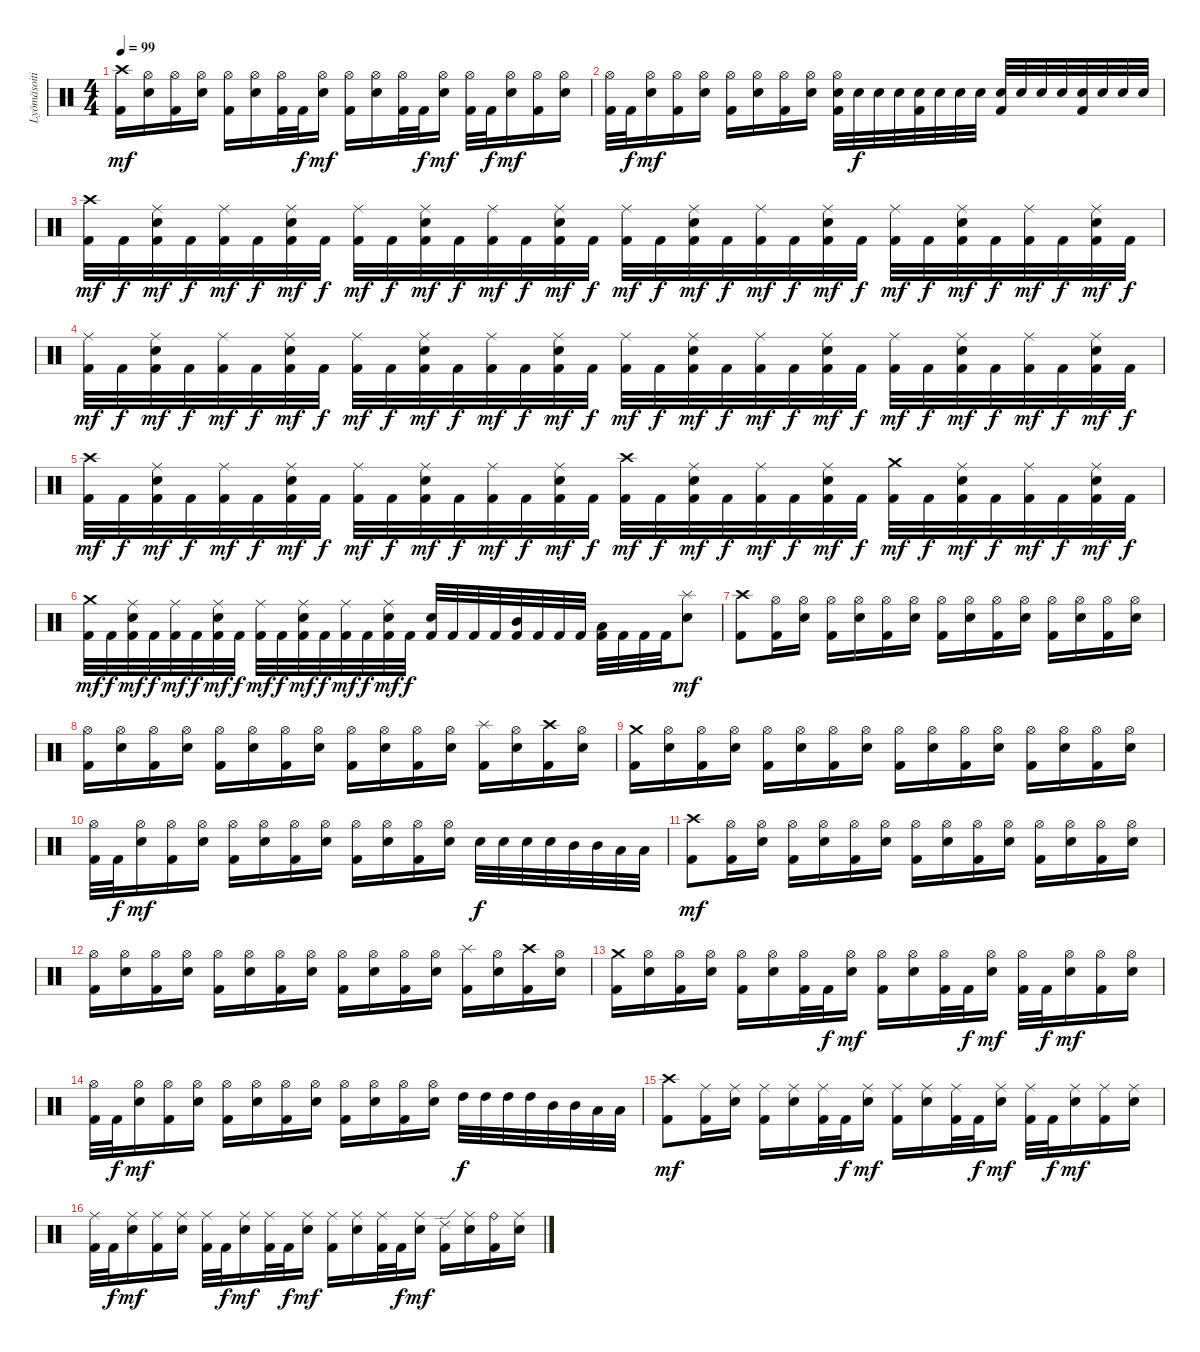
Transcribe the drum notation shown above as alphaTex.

\track ("Lyömäsoitin" "Lyömäsoiti") {instrument percussion}
\staff {score}
\articulation defaults
\ts (4 4)
\tempo 99
\clef neutral
\ks c
("Crash high (hit)" "Kick (hit) 2").16{dy mf} ("Electric Snare (hit)" "Hi-Hat (open)").16 ("Hi-Hat (open)" "Kick (hit) 2").16 ("Electric Snare (hit)" "Hi-Hat (open)").16 ("Hi-Hat (open)" "Kick (hit) 2").16 ("Electric Snare (hit)" "Hi-Hat (open)").16 ("Hi-Hat (open)" "Kick (hit) 2").32 "Kick (hit) 2".32{dy f} ("Electric Snare (hit)" "Hi-Hat (open)").16{dy mf} ("Hi-Hat (open)" "Kick (hit) 2").16 ("Electric Snare (hit)" "Hi-Hat (open)").16 ("Hi-Hat (open)" "Kick (hit) 2").32 "Kick (hit) 2".32{dy f} ("Electric Snare (hit)" "Hi-Hat (open)").16{dy mf} ("Hi-Hat (open)" "Kick (hit) 2").32 "Kick (hit) 2".32{dy f} ("Electric Snare (hit)" "Hi-Hat (open)").16{dy mf} ("Hi-Hat (open)" "Kick (hit) 2").16 ("Electric Snare (hit)" "Hi-Hat (open)").16 |
("Hi-Hat (open)" "Kick (hit) 2").32 "Kick (hit) 2".32{dy f} ("Electric Snare (hit)" "Hi-Hat (open)").16{dy mf} ("Hi-Hat (open)" "Kick (hit) 2").16 ("Electric Snare (hit)" "Hi-Hat (open)").16 ("Hi-Hat (open)" "Kick (hit) 2").16 ("Electric Snare (hit)" "Hi-Hat (open)").16 ("Hi-Hat (open)" "Kick (hit) 2").16 ("Electric Snare (hit)" "Hi-Hat (open)").16 ("Electric Snare (hit)" "Hi-Hat (open)" "Kick (hit) 2").32 "Electric Snare (hit)".32{dy f} "Electric Snare (hit)".32 "Electric Snare (hit)".32 ("Electric Snare (hit)" "Kick (hit) 2").32 "Electric Snare (hit)".32 "Electric Snare (hit)".32 "Electric Snare (hit)".32 ("Electric Snare (hit)" "Kick (hit) 2").32 "Electric Snare (hit)".32 "Electric Snare (hit)".32 "Electric Snare (hit)".32 ("Electric Snare (hit)" "Kick (hit) 2").32 "Electric Snare (hit)".32 "Electric Snare (hit)".32 "Electric Snare (hit)".32 |
("Crash high (hit)" "Kick (hit) 2").32{dy mf} "Kick (hit) 2".32{dy f} ("Electric Snare (hit)" "Ride (middle)" "Kick (hit) 2").32{dy mf} "Kick (hit) 2".32{dy f} ("Ride (middle)" "Kick (hit) 2").32{dy mf} "Kick (hit) 2".32{dy f} ("Electric Snare (hit)" "Ride (middle)" "Kick (hit) 2").32{dy mf} "Kick (hit) 2".32{dy f} ("Ride (middle)" "Kick (hit) 2").32{dy mf} "Kick (hit) 2".32{dy f} ("Electric Snare (hit)" "Ride (middle)" "Kick (hit) 2").32{dy mf} "Kick (hit) 2".32{dy f} ("Ride (middle)" "Kick (hit) 2").32{dy mf} "Kick (hit) 2".32{dy f} ("Electric Snare (hit)" "Ride (middle)" "Kick (hit) 2").32{dy mf} "Kick (hit) 2".32{dy f} ("Ride (middle)" "Kick (hit) 2").32{dy mf} "Kick (hit) 2".32{dy f} ("Electric Snare (hit)" "Ride (middle)" "Kick (hit) 2").32{dy mf} "Kick (hit) 2".32{dy f} ("Ride (middle)" "Kick (hit) 2").32{dy mf} "Kick (hit) 2".32{dy f} ("Electric Snare (hit)" "Ride (middle)" "Kick (hit) 2").32{dy mf} "Kick (hit) 2".32{dy f} ("Ride (middle)" "Kick (hit) 2").32{dy mf} "Kick (hit) 2".32{dy f} ("Electric Snare (hit)" "Ride (middle)" "Kick (hit) 2").32{dy mf} "Kick (hit) 2".32{dy f} ("Ride (middle)" "Kick (hit) 2").32{dy mf} "Kick (hit) 2".32{dy f} ("Electric Snare (hit)" "Ride (middle)" "Kick (hit) 2").32{dy mf} "Kick (hit) 2".32{dy f} |
("Ride (middle)" "Kick (hit) 2").32{dy mf} "Kick (hit) 2".32{dy f} ("Electric Snare (hit)" "Ride (middle)" "Kick (hit) 2").32{dy mf} "Kick (hit) 2".32{dy f} ("Ride (middle)" "Kick (hit) 2").32{dy mf} "Kick (hit) 2".32{dy f} ("Electric Snare (hit)" "Ride (middle)" "Kick (hit) 2").32{dy mf} "Kick (hit) 2".32{dy f} ("Ride (middle)" "Kick (hit) 2").32{dy mf} "Kick (hit) 2".32{dy f} ("Electric Snare (hit)" "Ride (middle)" "Kick (hit) 2").32{dy mf} "Kick (hit) 2".32{dy f} ("Ride (middle)" "Kick (hit) 2").32{dy mf} "Kick (hit) 2".32{dy f} ("Electric Snare (hit)" "Ride (middle)" "Kick (hit) 2").32{dy mf} "Kick (hit) 2".32{dy f} ("Ride (middle)" "Kick (hit) 2").32{dy mf} "Kick (hit) 2".32{dy f} ("Electric Snare (hit)" "Ride (middle)" "Kick (hit) 2").32{dy mf} "Kick (hit) 2".32{dy f} ("Ride (middle)" "Kick (hit) 2").32{dy mf} "Kick (hit) 2".32{dy f} ("Electric Snare (hit)" "Ride (middle)" "Kick (hit) 2").32{dy mf} "Kick (hit) 2".32{dy f} ("Ride (middle)" "Kick (hit) 2").32{dy mf} "Kick (hit) 2".32{dy f} ("Electric Snare (hit)" "Ride (middle)" "Kick (hit) 2").32{dy mf} "Kick (hit) 2".32{dy f} ("Ride (middle)" "Kick (hit) 2").32{dy mf} "Kick (hit) 2".32{dy f} ("Electric Snare (hit)" "Ride (middle)" "Kick (hit) 2").32{dy mf} "Kick (hit) 2".32{dy f} |
("Crash high (hit)" "Kick (hit) 2").32{dy mf} "Kick (hit) 2".32{dy f} ("Electric Snare (hit)" "Ride (middle)" "Kick (hit) 2").32{dy mf} "Kick (hit) 2".32{dy f} ("Ride (middle)" "Kick (hit) 2").32{dy mf} "Kick (hit) 2".32{dy f} ("Electric Snare (hit)" "Ride (middle)" "Kick (hit) 2").32{dy mf} "Kick (hit) 2".32{dy f} ("Ride (middle)" "Kick (hit) 2").32{dy mf} "Kick (hit) 2".32{dy f} ("Electric Snare (hit)" "Ride (middle)" "Kick (hit) 2").32{dy mf} "Kick (hit) 2".32{dy f} ("Ride (middle)" "Kick (hit) 2").32{dy mf} "Kick (hit) 2".32{dy f} ("Electric Snare (hit)" "Ride (middle)" "Kick (hit) 2").32{dy mf} "Kick (hit) 2".32{dy f} ("Crash high (hit)" "Kick (hit) 2").32{dy mf} "Kick (hit) 2".32{dy f} ("Electric Snare (hit)" "Ride (middle)" "Kick (hit) 2").32{dy mf} "Kick (hit) 2".32{dy f} ("Ride (middle)" "Kick (hit) 2").32{dy mf} "Kick (hit) 2".32{dy f} ("Electric Snare (hit)" "Ride (middle)" "Kick (hit) 2").32{dy mf} "Kick (hit) 2".32{dy f} ("Crash medium (hit)" "Kick (hit) 2").32{dy mf} "Kick (hit) 2".32{dy f} ("Electric Snare (hit)" "Ride (middle)" "Kick (hit) 2").32{dy mf} "Kick (hit) 2".32{dy f} ("Ride (middle)" "Kick (hit) 2").32{dy mf} "Kick (hit) 2".32{dy f} ("Electric Snare (hit)" "Ride (middle)" "Kick (hit) 2").32{dy mf} "Kick (hit) 2".32{dy f} |
("Crash medium (hit)" "Kick (hit) 2").32{dy mf} "Kick (hit) 2".32{dy f} ("Electric Snare (hit)" "Ride (middle)" "Kick (hit) 2").32{dy mf} "Kick (hit) 2".32{dy f} ("Ride (middle)" "Kick (hit) 2").32{dy mf} "Kick (hit) 2".32{dy f} ("Electric Snare (hit)" "Ride (middle)" "Kick (hit) 2").32{dy mf} "Kick (hit) 2".32{dy f} ("Ride (middle)" "Kick (hit) 2").32{dy mf} "Kick (hit) 2".32{dy f} ("Electric Snare (hit)" "Ride (middle)" "Kick (hit) 2").32{dy mf} "Kick (hit) 2".32{dy f} ("Ride (middle)" "Kick (hit) 2").32{dy mf} "Kick (hit) 2".32{dy f} ("Electric Snare (hit)" "Ride (middle)" "Kick (hit) 2").32{dy mf} "Kick (hit) 2".32{dy f} ("Electric Snare (hit)" "Kick (hit) 2").32 "Kick (hit) 2".32 "Kick (hit) 2".32 "Kick (hit) 2".32 ("Mid Tom (hit)" "Kick (hit) 2").32 "Kick (hit) 2".32 "Kick (hit) 2".32 "Kick (hit) 2".32 ("Low Tom (hit)" "Kick (hit) 2").32 "Kick (hit) 2".32 "Kick (hit) 2".32 "Kick (hit) 2".32 ("Electric Snare (hit)" "Splash (hit)").8{dy mf} |
("Crash high (hit)" "Kick (hit) 2").8 ("Hi-Hat (open)" "Kick (hit) 2").16 ("Electric Snare (hit)" "Hi-Hat (open)").16 ("Hi-Hat (open)" "Kick (hit) 2").16 ("Electric Snare (hit)" "Hi-Hat (open)").16 ("Hi-Hat (open)" "Kick (hit) 2").16 ("Electric Snare (hit)" "Hi-Hat (open)").16 ("Hi-Hat (open)" "Kick (hit) 2").16 ("Electric Snare (hit)" "Hi-Hat (open)").16 ("Hi-Hat (open)" "Kick (hit) 2").16 ("Electric Snare (hit)" "Hi-Hat (open)").16 ("Hi-Hat (open)" "Kick (hit) 2").16 ("Electric Snare (hit)" "Hi-Hat (open)").16 ("Hi-Hat (open)" "Kick (hit) 2").16 ("Electric Snare (hit)" "Hi-Hat (open)").16 |
("Hi-Hat (open)" "Kick (hit) 2").16 ("Electric Snare (hit)" "Hi-Hat (open)").16 ("Hi-Hat (open)" "Kick (hit) 2").16 ("Electric Snare (hit)" "Hi-Hat (open)").16 ("Hi-Hat (open)" "Kick (hit) 2").16 ("Electric Snare (hit)" "Hi-Hat (open)").16 ("Hi-Hat (open)" "Kick (hit) 2").16 ("Electric Snare (hit)" "Hi-Hat (open)").16 ("Hi-Hat (open)" "Kick (hit) 2").16 ("Electric Snare (hit)" "Hi-Hat (open)").16 ("Hi-Hat (open)" "Kick (hit) 2").16 ("Electric Snare (hit)" "Hi-Hat (open)").16 ("Splash (hit)" "Kick (hit) 2").16 ("Electric Snare (hit)" "Hi-Hat (open)").16 ("Crash high (hit)" "Kick (hit) 2").16 ("Electric Snare (hit)" "Hi-Hat (open)").16 |
("Crash medium (hit)" "Kick (hit) 2").16 ("Electric Snare (hit)" "Hi-Hat (open)").16 ("Hi-Hat (open)" "Kick (hit) 2").16 ("Electric Snare (hit)" "Hi-Hat (open)").16 ("Hi-Hat (open)" "Kick (hit) 2").16 ("Electric Snare (hit)" "Hi-Hat (open)").16 ("Hi-Hat (open)" "Kick (hit) 2").16 ("Electric Snare (hit)" "Hi-Hat (open)").16 ("Hi-Hat (open)" "Kick (hit) 2").16 ("Electric Snare (hit)" "Hi-Hat (open)").16 ("Hi-Hat (open)" "Kick (hit) 2").16 ("Electric Snare (hit)" "Hi-Hat (open)").16 ("Hi-Hat (open)" "Kick (hit) 2").16 ("Electric Snare (hit)" "Hi-Hat (open)").16 ("Hi-Hat (open)" "Kick (hit) 2").16 ("Electric Snare (hit)" "Hi-Hat (open)").16 |
("Hi-Hat (open)" "Kick (hit) 2").32 "Kick (hit) 2".32{dy f} ("Electric Snare (hit)" "Hi-Hat (open)").16{dy mf} ("Hi-Hat (open)" "Kick (hit) 2").16 ("Electric Snare (hit)" "Hi-Hat (open)").16 ("Hi-Hat (open)" "Kick (hit) 2").16 ("Electric Snare (hit)" "Hi-Hat (open)").16 ("Hi-Hat (open)" "Kick (hit) 2").16 ("Electric Snare (hit)" "Hi-Hat (open)").16 ("Hi-Hat (open)" "Kick (hit) 2").16 ("Electric Snare (hit)" "Hi-Hat (open)").16 ("Hi-Hat (open)" "Kick (hit) 2").16 ("Electric Snare (hit)" "Hi-Hat (open)").16 "Electric Snare (hit)".32{dy f} "Electric Snare (hit)".32 "Electric Snare (hit)".32 "Electric Snare (hit)".32 "Mid Tom (hit)".32 "Mid Tom (hit)".32 "Low Tom (hit)".32 "Low Tom (hit)".32 |
("Crash high (hit)" "Kick (hit) 2").8{dy mf} ("Hi-Hat (open)" "Kick (hit) 2").16 ("Electric Snare (hit)" "Hi-Hat (open)").16 ("Hi-Hat (open)" "Kick (hit) 2").16 ("Electric Snare (hit)" "Hi-Hat (open)").16 ("Hi-Hat (open)" "Kick (hit) 2").16 ("Electric Snare (hit)" "Hi-Hat (open)").16 ("Hi-Hat (open)" "Kick (hit) 2").16 ("Electric Snare (hit)" "Hi-Hat (open)").16 ("Hi-Hat (open)" "Kick (hit) 2").16 ("Electric Snare (hit)" "Hi-Hat (open)").16 ("Hi-Hat (open)" "Kick (hit) 2").16 ("Electric Snare (hit)" "Hi-Hat (open)").16 ("Hi-Hat (open)" "Kick (hit) 2").16 ("Electric Snare (hit)" "Hi-Hat (open)").16 |
("Hi-Hat (open)" "Kick (hit) 2").16 ("Electric Snare (hit)" "Hi-Hat (open)").16 ("Hi-Hat (open)" "Kick (hit) 2").16 ("Electric Snare (hit)" "Hi-Hat (open)").16 ("Hi-Hat (open)" "Kick (hit) 2").16 ("Electric Snare (hit)" "Hi-Hat (open)").16 ("Hi-Hat (open)" "Kick (hit) 2").16 ("Electric Snare (hit)" "Hi-Hat (open)").16 ("Hi-Hat (open)" "Kick (hit) 2").16 ("Electric Snare (hit)" "Hi-Hat (open)").16 ("Hi-Hat (open)" "Kick (hit) 2").16 ("Electric Snare (hit)" "Hi-Hat (open)").16 ("Splash (hit)" "Kick (hit) 2").16 ("Electric Snare (hit)" "Hi-Hat (open)").16 ("Crash high (hit)" "Kick (hit) 2").16 ("Electric Snare (hit)" "Hi-Hat (open)").16 |
("Crash medium (hit)" "Kick (hit) 2").16 ("Electric Snare (hit)" "Hi-Hat (open)").16 ("Hi-Hat (open)" "Kick (hit) 2").16 ("Electric Snare (hit)" "Hi-Hat (open)").16 ("Hi-Hat (open)" "Kick (hit) 2").16 ("Electric Snare (hit)" "Hi-Hat (open)").16 ("Hi-Hat (open)" "Kick (hit) 2").32 "Kick (hit) 2".32{dy f} ("Electric Snare (hit)" "Hi-Hat (open)").16{dy mf} ("Hi-Hat (open)" "Kick (hit) 2").16 ("Electric Snare (hit)" "Hi-Hat (open)").16 ("Hi-Hat (open)" "Kick (hit) 2").32 "Kick (hit) 2".32{dy f} ("Electric Snare (hit)" "Hi-Hat (open)").16{dy mf} ("Hi-Hat (open)" "Kick (hit) 2").32 "Kick (hit) 2".32{dy f} ("Electric Snare (hit)" "Hi-Hat (open)").16{dy mf} ("Hi-Hat (open)" "Kick (hit) 2").16 ("Electric Snare (hit)" "Hi-Hat (open)").16 |
("Hi-Hat (open)" "Kick (hit) 2").32 "Kick (hit) 2".32{dy f} ("Electric Snare (hit)" "Hi-Hat (open)").16{dy mf} ("Hi-Hat (open)" "Kick (hit) 2").16 ("Electric Snare (hit)" "Hi-Hat (open)").16 ("Hi-Hat (open)" "Kick (hit) 2").16 ("Electric Snare (hit)" "Hi-Hat (open)").16 ("Hi-Hat (open)" "Kick (hit) 2").16 ("Electric Snare (hit)" "Hi-Hat (open)").16 ("Hi-Hat (open)" "Kick (hit) 2").16 ("Electric Snare (hit)" "Hi-Hat (open)").16 ("Hi-Hat (open)" "Kick (hit) 2").16 ("Electric Snare (hit)" "Hi-Hat (open)").16 "High Tom (hit)".32{dy f} "High Tom (hit)".32 "High Tom (hit)".32 "High Tom (hit)".32 "Mid Tom (hit)".32 "Mid Tom (hit)".32 "Low Tom (hit)".32 "Low Tom (hit)".32 |
("Crash high (hit)" "Kick (hit) 2").8{dy mf} ("Ride (middle)" "Kick (hit) 2").16 ("Electric Snare (hit)" "Ride (middle)").16 ("Ride (middle)" "Kick (hit) 2").16 ("Electric Snare (hit)" "Ride (middle)").16 ("Ride (middle)" "Kick (hit) 2").32 "Kick (hit) 2".32{dy f} ("Electric Snare (hit)" "Ride (middle)").16{dy mf} ("Ride (middle)" "Kick (hit) 2").16 ("Electric Snare (hit)" "Ride (middle)").16 ("Ride (middle)" "Kick (hit) 2").32 "Kick (hit) 2".32{dy f} ("Electric Snare (hit)" "Ride (middle)").16{dy mf} ("Ride (middle)" "Kick (hit) 2").32 "Kick (hit) 2".32{dy f} ("Electric Snare (hit)" "Ride (middle)").16{dy mf} ("Ride (middle)" "Kick (hit) 2").16 ("Electric Snare (hit)" "Ride (middle)").16 |
("Ride (middle)" "Kick (hit) 2").32 "Kick (hit) 2".32{dy f} ("Electric Snare (hit)" "Ride (middle)").16{dy mf} ("Ride (middle)" "Kick (hit) 2").16 ("Electric Snare (hit)" "Ride (middle)").16 ("Ride (middle)" "Kick (hit) 2").32 "Kick (hit) 2".32{dy f} ("Electric Snare (hit)" "Ride (middle)").16{dy mf} ("Ride (middle)" "Kick (hit) 2").32 "Kick (hit) 2".32{dy f} ("Electric Snare (hit)" "Ride (middle)").16{dy mf} ("Ride (middle)" "Kick (hit) 2").16 ("Electric Snare (hit)" "Ride (middle)").16 ("Ride (middle)" "Kick (hit) 2").32 "Kick (hit) 2".32{dy f} ("Electric Snare (hit)" "Ride (middle)").16{dy mf} ("Ride (edge) 2" "Kick (hit) 2").16 ("Electric Snare (hit)" "Ride (middle)").16 ("Ride (bell)" "Kick (hit) 2").16 ("Electric Snare (hit)" "Ride (middle)").16
